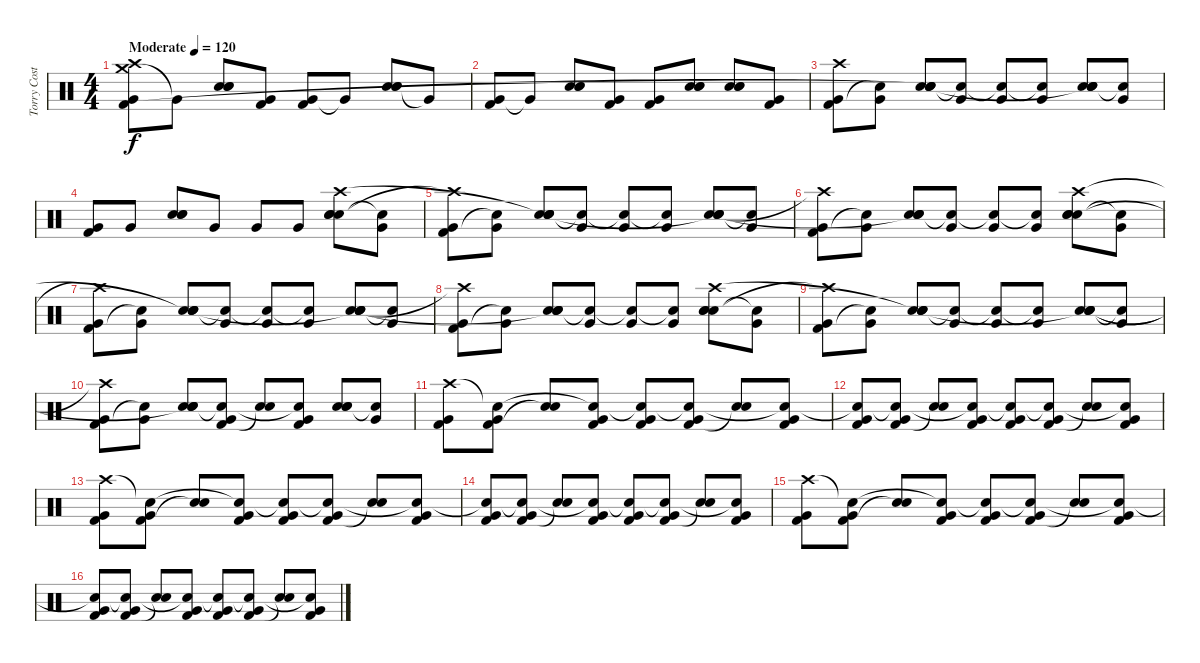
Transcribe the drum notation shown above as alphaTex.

\track ("Torry Costellano" "Torry Cost") {instrument percussion}
\staff {score}
\articulation defaults
\ts (4 4)
\tempo (120 "Moderate")
\clef neutral
\ks c
("Crash medium (hit)" "Crash high (hit)" "Very Low Tom (hit)" "Kick (hit) 2").8{dy f} "Very Low Tom (hit)"{t}.8 ("Hand Clap (hit)" "Hand Clap (hit)" "Electric Snare (hit)").8 ("Very Low Tom (hit)" "Kick (hit) 2").8 ("Very Low Tom (hit)" "Kick (hit) 2").8 "Very Low Tom (hit)"{t}.8 ("Hand Clap (hit)" "Hand Clap (hit)" "Electric Snare (hit)").8 "Very Low Tom (hit)"{t}.8 |
("Very Low Tom (hit)" "Kick (hit) 2").8 "Very Low Tom (hit)"{t}.8 ("Hand Clap (hit)" "Hand Clap (hit)" "Electric Snare (hit)").8 ("Very Low Tom (hit)" "Kick (hit) 2").8 ("Very Low Tom (hit)" "Kick (hit) 2").8 ("Hand Clap (hit)" "Hand Clap (hit)" "Electric Snare (hit)").8 ("Hand Clap (hit)" "Hand Clap (hit)" "Electric Snare (hit)").8 ("Very Low Tom (hit)" "Kick (hit) 2").8 |
("Very Low Tom (hit)" "Kick (hit) 2" "Crash high (hit)").8 ("Very Low Tom (hit)" "Snare (hit)"{t}).8 ("Hand Clap (hit)" "Hand Clap (hit)" "Electric Snare (hit)" "Snare (hit)"{t}).8 ("Very Low Tom (hit)" "Snare (hit)"{t}).8 ("Very Low Tom (hit)" "Snare (hit)"{t}).8 ("Very Low Tom (hit)" "Snare (hit)"{t}).8 ("Hand Clap (hit)" "Hand Clap (hit)" "Electric Snare (hit)" "Snare (hit)"{t}).8 ("Very Low Tom (hit)" "Snare (hit)"{t}).8 |
("Very Low Tom (hit)" "Kick (hit) 2").8 "Very Low Tom (hit)".8 ("Hand Clap (hit)" "Hand Clap (hit)" "Electric Snare (hit)").8 "Very Low Tom (hit)".8 "Very Low Tom (hit)".8 "Very Low Tom (hit)".8 ("Hand Clap (hit)" "Hand Clap (hit)" "Electric Snare (hit)" "Crash high (hit)").8 ("Very Low Tom (hit)" "Snare (hit)"{t}).8 |
("Very Low Tom (hit)" "Kick (hit) 2" "Crash high (hit)"{t}).8 ("Very Low Tom (hit)" "Snare (hit)"{t}).8 ("Hand Clap (hit)" "Hand Clap (hit)" "Electric Snare (hit)" "Snare (hit)"{t}).8 ("Very Low Tom (hit)" "Snare (hit)"{t}).8 ("Very Low Tom (hit)" "Snare (hit)"{t}).8 ("Very Low Tom (hit)" "Snare (hit)"{t}).8 ("Hand Clap (hit)" "Hand Clap (hit)" "Electric Snare (hit)" "Snare (hit)"{t}).8 ("Very Low Tom (hit)" "Snare (hit)"{t}).8 |
("Very Low Tom (hit)" "Kick (hit) 2" "Crash high (hit)"{t}).8 ("Very Low Tom (hit)" "Snare (hit)"{t}).8 ("Hand Clap (hit)" "Hand Clap (hit)" "Electric Snare (hit)" "Snare (hit)"{t}).8 ("Very Low Tom (hit)" "Snare (hit)"{t}).8 ("Very Low Tom (hit)" "Snare (hit)"{t}).8 ("Very Low Tom (hit)" "Snare (hit)"{t}).8 ("Hand Clap (hit)" "Hand Clap (hit)" "Electric Snare (hit)" "Crash high (hit)").8 ("Very Low Tom (hit)" "Snare (hit)"{t}).8 |
("Very Low Tom (hit)" "Kick (hit) 2" "Crash high (hit)"{t}).8 ("Very Low Tom (hit)" "Snare (hit)"{t}).8 ("Hand Clap (hit)" "Hand Clap (hit)" "Electric Snare (hit)" "Snare (hit)"{t}).8 ("Very Low Tom (hit)" "Snare (hit)"{t}).8 ("Very Low Tom (hit)" "Snare (hit)"{t}).8 ("Very Low Tom (hit)" "Snare (hit)"{t}).8 ("Hand Clap (hit)" "Hand Clap (hit)" "Electric Snare (hit)" "Snare (hit)"{t}).8 ("Very Low Tom (hit)" "Snare (hit)"{t}).8 |
("Very Low Tom (hit)" "Kick (hit) 2" "Crash high (hit)"{t}).8 ("Very Low Tom (hit)" "Snare (hit)"{t}).8 ("Hand Clap (hit)" "Hand Clap (hit)" "Electric Snare (hit)" "Snare (hit)"{t}).8 ("Very Low Tom (hit)" "Snare (hit)"{t}).8 ("Very Low Tom (hit)" "Snare (hit)"{t}).8 ("Very Low Tom (hit)" "Snare (hit)"{t}).8 ("Hand Clap (hit)" "Hand Clap (hit)" "Electric Snare (hit)" "Crash high (hit)").8 ("Very Low Tom (hit)" "Snare (hit)"{t}).8 |
("Very Low Tom (hit)" "Kick (hit) 2" "Crash high (hit)"{t}).8 ("Very Low Tom (hit)" "Snare (hit)"{t}).8 ("Hand Clap (hit)" "Hand Clap (hit)" "Electric Snare (hit)" "Snare (hit)"{t}).8 ("Very Low Tom (hit)" "Snare (hit)"{t}).8 ("Very Low Tom (hit)" "Snare (hit)"{t}).8 ("Very Low Tom (hit)" "Snare (hit)"{t}).8 ("Hand Clap (hit)" "Hand Clap (hit)" "Electric Snare (hit)" "Snare (hit)"{t}).8 ("Very Low Tom (hit)" "Snare (hit)"{t}).8 |
("Very Low Tom (hit)" "Kick (hit) 2" "Crash high (hit)"{t}).8 ("Very Low Tom (hit)" "Snare (hit)"{t}).8 ("Hand Clap (hit)" "Hand Clap (hit)" "Electric Snare (hit)" "Snare (hit)"{t}).8 ("Very Low Tom (hit)" "Kick (hit) 2" "Snare (hit)"{t}).8 ("Electric Snare (hit)" "Snare (hit)"{t}).8 ("Very Low Tom (hit)" "Kick (hit) 2" "Snare (hit)"{t}).8 ("Hand Clap (hit)" "Hand Clap (hit)" "Electric Snare (hit)").8 ("Very Low Tom (hit)" "Snare (hit)"{t}).8 |
("Very Low Tom (hit)" "Kick (hit) 2" "Crash high (hit)").8 ("Very Low Tom (hit)" "Kick (hit) 2" "Snare (hit)"{t}).8 ("Electric Snare (hit)" "Snare (hit)"{t}).8 ("Very Low Tom (hit)" "Kick (hit) 2" "Snare (hit)"{t}).8 ("Very Low Tom (hit)" "Kick (hit) 2" "Snare (hit)"{t}).8 ("Very Low Tom (hit)" "Kick (hit) 2" "Snare (hit)"{t}).8 ("Electric Snare (hit)" "Snare (hit)"{t}).8 ("Very Low Tom (hit)" "Kick (hit) 2" "Snare (hit)"{t}).8 |
("Very Low Tom (hit)" "Kick (hit) 2" "Snare (hit)"{t}).8 ("Very Low Tom (hit)" "Kick (hit) 2" "Snare (hit)"{t}).8 ("Electric Snare (hit)" "Snare (hit)"{t}).8 ("Very Low Tom (hit)" "Kick (hit) 2" "Snare (hit)"{t}).8 ("Very Low Tom (hit)" "Kick (hit) 2" "Snare (hit)"{t}).8 ("Very Low Tom (hit)" "Kick (hit) 2" "Snare (hit)"{t}).8 ("Electric Snare (hit)" "Snare (hit)"{t}).8 ("Very Low Tom (hit)" "Kick (hit) 2" "Snare (hit)"{t}).8 |
("Very Low Tom (hit)" "Kick (hit) 2" "Crash high (hit)").8 ("Very Low Tom (hit)" "Kick (hit) 2" "Snare (hit)"{t}).8 ("Electric Snare (hit)" "Snare (hit)"{t}).8 ("Very Low Tom (hit)" "Kick (hit) 2" "Snare (hit)"{t}).8 ("Very Low Tom (hit)" "Kick (hit) 2" "Snare (hit)"{t}).8 ("Very Low Tom (hit)" "Kick (hit) 2" "Snare (hit)"{t}).8 ("Electric Snare (hit)" "Snare (hit)"{t}).8 ("Very Low Tom (hit)" "Kick (hit) 2" "Snare (hit)"{t}).8 |
("Very Low Tom (hit)" "Kick (hit) 2" "Snare (hit)"{t}).8 ("Very Low Tom (hit)" "Kick (hit) 2" "Snare (hit)"{t}).8 ("Electric Snare (hit)" "Snare (hit)"{t}).8 ("Very Low Tom (hit)" "Kick (hit) 2" "Snare (hit)"{t}).8 ("Very Low Tom (hit)" "Kick (hit) 2" "Snare (hit)"{t}).8 ("Very Low Tom (hit)" "Kick (hit) 2" "Snare (hit)"{t}).8 ("Electric Snare (hit)" "Snare (hit)"{t}).8 ("Very Low Tom (hit)" "Kick (hit) 2" "Snare (hit)"{t}).8 |
("Very Low Tom (hit)" "Kick (hit) 2" "Crash high (hit)").8 ("Very Low Tom (hit)" "Kick (hit) 2" "Snare (hit)"{t}).8 ("Electric Snare (hit)" "Snare (hit)"{t}).8 ("Very Low Tom (hit)" "Kick (hit) 2" "Snare (hit)"{t}).8 ("Very Low Tom (hit)" "Kick (hit) 2" "Snare (hit)"{t}).8 ("Very Low Tom (hit)" "Kick (hit) 2" "Snare (hit)"{t}).8 ("Electric Snare (hit)" "Snare (hit)"{t}).8 ("Very Low Tom (hit)" "Kick (hit) 2" "Snare (hit)"{t}).8 |
("Very Low Tom (hit)" "Kick (hit) 2" "Snare (hit)"{t}).8 ("Very Low Tom (hit)" "Kick (hit) 2" "Snare (hit)"{t}).8 ("Electric Snare (hit)" "Snare (hit)"{t}).8 ("Very Low Tom (hit)" "Kick (hit) 2" "Snare (hit)"{t}).8 ("Very Low Tom (hit)" "Kick (hit) 2" "Snare (hit)"{t}).8 ("Very Low Tom (hit)" "Kick (hit) 2" "Snare (hit)"{t}).8 ("Electric Snare (hit)" "Snare (hit)"{t}).8 ("Very Low Tom (hit)" "Kick (hit) 2" "Snare (hit)"{t}).8
